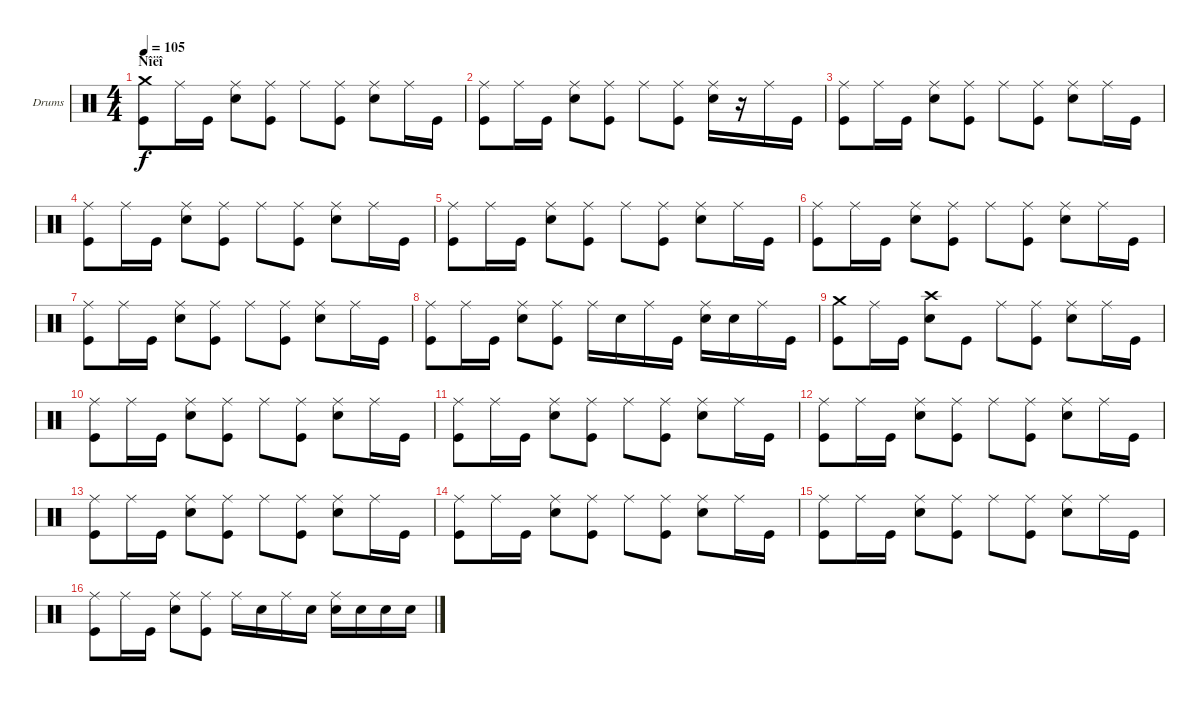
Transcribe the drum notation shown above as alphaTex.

\bracketExtendMode groupsimilarinstruments
\firstSystemTrackNameOrientation horizontal
\otherSystemsTrackNameOrientation horizontal
\track ("Drumkit" "Drums") {instrument percussion}
\staff {score}
\articulation defaults
\ts (4 4)
\section ("" "Ñîëî")
\tempo 105
\clef neutral
\ks c
("Kick (hit)" "Crash medium (hit)").8{dy f} "Ride (middle)".16 "Kick (hit)".16 ("Snare (hit) 2" "Ride (middle)").8 ("Kick (hit)" "Ride (middle)").8 "Ride (middle)".8 ("Kick (hit)" "Ride (middle)").8 ("Snare (hit) 2" "Ride (middle)").8 "Ride (middle)".16 "Kick (hit)".16 |
("Kick (hit)" "Ride (middle)").8 "Ride (middle)".16 "Kick (hit)".16 ("Snare (hit) 2" "Ride (middle)").8 ("Kick (hit)" "Ride (middle)").8 "Ride (middle)".8 ("Kick (hit)" "Ride (middle)").8 ("Snare (hit) 2" "Ride (middle)").16 r.16 "Ride (middle)".16 "Kick (hit)".16 |
("Kick (hit)" "Ride (middle)").8 "Ride (middle)".16 "Kick (hit)".16 ("Snare (hit) 2" "Ride (middle)").8 ("Kick (hit)" "Ride (middle)").8 "Ride (middle)".8 ("Kick (hit)" "Ride (middle)").8 ("Snare (hit) 2" "Ride (middle)").8 "Ride (middle)".16 "Kick (hit)".16 |
("Kick (hit)" "Ride (middle)").8 "Ride (middle)".16 "Kick (hit)".16 ("Snare (hit) 2" "Ride (middle)").8 ("Kick (hit)" "Ride (middle)").8 "Ride (middle)".8 ("Kick (hit)" "Ride (middle)").8 ("Snare (hit) 2" "Ride (middle)").8 "Ride (middle)".16 "Kick (hit)".16 |
("Kick (hit)" "Ride (middle)").8 "Ride (middle)".16 "Kick (hit)".16 ("Snare (hit) 2" "Ride (middle)").8 ("Kick (hit)" "Ride (middle)").8 "Ride (middle)".8 ("Kick (hit)" "Ride (middle)").8 ("Snare (hit) 2" "Ride (middle)").8 "Ride (middle)".16 "Kick (hit)".16 |
("Kick (hit)" "Ride (middle)").8 "Ride (middle)".16 "Kick (hit)".16 ("Snare (hit) 2" "Ride (middle)").8 ("Kick (hit)" "Ride (middle)").8 "Ride (middle)".8 ("Kick (hit)" "Ride (middle)").8 ("Snare (hit) 2" "Ride (middle)").8 "Ride (middle)".16 "Kick (hit)".16 |
("Kick (hit)" "Ride (middle)").8 "Ride (middle)".16 "Kick (hit)".16 ("Snare (hit) 2" "Ride (middle)").8 ("Kick (hit)" "Ride (middle)").8 "Ride (middle)".8 ("Kick (hit)" "Ride (middle)").8 ("Snare (hit) 2" "Ride (middle)").8 "Ride (middle)".16 "Kick (hit)".16 |
("Kick (hit)" "Ride (middle)").8 "Ride (middle)".16 "Kick (hit)".16 ("Snare (hit) 2" "Ride (middle)").8 ("Kick (hit)" "Ride (middle)").8 "Ride (middle)".16 "Snare (hit) 2".16 "Ride (middle)".16 "Kick (hit)".16 ("Snare (hit) 2" "Ride (middle)").16 "Snare (hit) 2".16 "Ride (middle)".16 "Kick (hit)".16 |
("Kick (hit)" "Crash medium (hit)").8 "Ride (middle)".16 "Kick (hit)".16 ("Snare (hit) 2" "Crash high (hit)").8 "Kick (hit)".8 "Ride (middle)".8 ("Kick (hit)" "Ride (middle)").8 ("Snare (hit) 2" "Ride (middle)").8 "Ride (middle)".16 "Kick (hit)".16 |
("Kick (hit)" "Ride (middle)").8 "Ride (middle)".16 "Kick (hit)".16 ("Snare (hit) 2" "Ride (middle)").8 ("Kick (hit)" "Ride (middle)").8 "Ride (middle)".8 ("Kick (hit)" "Ride (middle)").8 ("Snare (hit) 2" "Ride (middle)").8 "Ride (middle)".16 "Kick (hit)".16 |
("Kick (hit)" "Ride (middle)").8 "Ride (middle)".16 "Kick (hit)".16 ("Snare (hit) 2" "Ride (middle)").8 ("Kick (hit)" "Ride (middle)").8 "Ride (middle)".8 ("Kick (hit)" "Ride (middle)").8 ("Snare (hit) 2" "Ride (middle)").8 "Ride (middle)".16 "Kick (hit)".16 |
("Kick (hit)" "Ride (middle)").8 "Ride (middle)".16 "Kick (hit)".16 ("Snare (hit) 2" "Ride (middle)").8 ("Kick (hit)" "Ride (middle)").8 "Ride (middle)".8 ("Kick (hit)" "Ride (middle)").8 ("Snare (hit) 2" "Ride (middle)").8 "Ride (middle)".16 "Kick (hit)".16 |
("Kick (hit)" "Ride (middle)").8 "Ride (middle)".16 "Kick (hit)".16 ("Snare (hit) 2" "Ride (middle)").8 ("Kick (hit)" "Ride (middle)").8 "Ride (middle)".8 ("Kick (hit)" "Ride (middle)").8 ("Snare (hit) 2" "Ride (middle)").8 "Ride (middle)".16 "Kick (hit)".16 |
("Kick (hit)" "Ride (middle)").8 "Ride (middle)".16 "Kick (hit)".16 ("Snare (hit) 2" "Ride (middle)").8 ("Kick (hit)" "Ride (middle)").8 "Ride (middle)".8 ("Kick (hit)" "Ride (middle)").8 ("Snare (hit) 2" "Ride (middle)").8 "Ride (middle)".16 "Kick (hit)".16 |
("Kick (hit)" "Ride (middle)").8 "Ride (middle)".16 "Kick (hit)".16 ("Snare (hit) 2" "Ride (middle)").8 ("Kick (hit)" "Ride (middle)").8 "Ride (middle)".8 ("Kick (hit)" "Ride (middle)").8 ("Snare (hit) 2" "Ride (middle)").8 "Ride (middle)".16 "Kick (hit)".16 |
("Kick (hit)" "Ride (middle)").8 "Ride (middle)".16 "Kick (hit)".16 ("Snare (hit) 2" "Ride (middle)").8 ("Kick (hit)" "Ride (middle)").8 "Ride (middle)".16 "Snare (hit) 2".16 "Ride (middle)".16 "Snare (hit) 2".16 ("Snare (hit) 2" "Ride (middle)").16 "Snare (hit) 2".16 "Snare (hit) 2".16 "Snare (hit) 2".16
